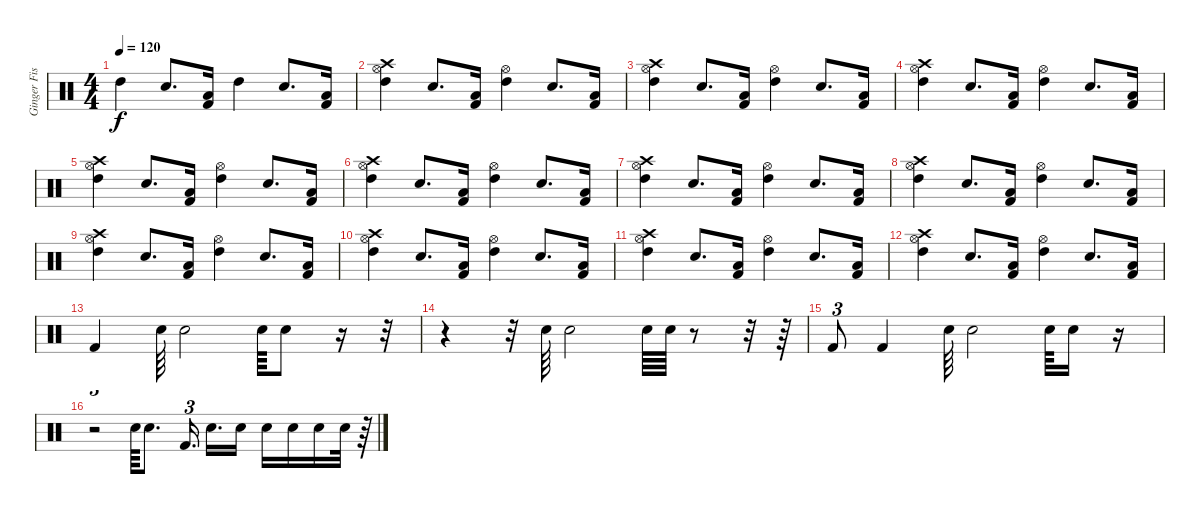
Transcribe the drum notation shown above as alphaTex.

\track ("Ginger Fish" "Ginger Fis") {instrument percussion}
\staff {score}
\articulation defaults
\ts (4 4)
\tempo 120
\clef neutral
\ks c "High Tom (hit)".4{dy f} "Electric Snare (hit)".8{d}
("Low Tom (hit)" "Kick (hit) 2").16 "High Tom (hit)".4 "Electric Snare (hit)".8{d} ("Low Tom (hit)" "Kick (hit) 2").16 |
("Crash high (hit)" "Hi-Hat (open)" "High Tom (hit)").4 "Electric Snare (hit)".8{d} ("Low Tom (hit)" "Kick (hit) 2").16 ("Hi-Hat (open)" "High Tom (hit)").4 "Electric Snare (hit)".8{d} ("Low Tom (hit)" "Kick (hit) 2").16 |
("Crash high (hit)" "Hi-Hat (open)" "High Tom (hit)").4 "Electric Snare (hit)".8{d} ("Low Tom (hit)" "Kick (hit) 2").16 ("Hi-Hat (open)" "High Tom (hit)").4 "Electric Snare (hit)".8{d} ("Low Tom (hit)" "Kick (hit) 2").16 |
("Crash high (hit)" "Hi-Hat (open)" "High Tom (hit)").4 "Electric Snare (hit)".8{d} ("Low Tom (hit)" "Kick (hit) 2").16 ("Hi-Hat (open)" "High Tom (hit)").4 "Electric Snare (hit)".8{d} ("Low Tom (hit)" "Kick (hit) 2").16 |
("Crash high (hit)" "Hi-Hat (open)" "High Tom (hit)").4 "Electric Snare (hit)".8{d} ("Low Tom (hit)" "Kick (hit) 2").16 ("Hi-Hat (open)" "High Tom (hit)").4 "Electric Snare (hit)".8{d} ("Low Tom (hit)" "Kick (hit) 2").16 |
("Crash high (hit)" "Hi-Hat (open)" "High Tom (hit)").4 "Electric Snare (hit)".8{d} ("Low Tom (hit)" "Kick (hit) 2").16 ("Hi-Hat (open)" "High Tom (hit)").4 "Electric Snare (hit)".8{d} ("Low Tom (hit)" "Kick (hit) 2").16 |
("Crash high (hit)" "Hi-Hat (open)" "High Tom (hit)").4 "Electric Snare (hit)".8{d} ("Low Tom (hit)" "Kick (hit) 2").16 ("Hi-Hat (open)" "High Tom (hit)").4 "Electric Snare (hit)".8{d} ("Low Tom (hit)" "Kick (hit) 2").16 |
("Crash high (hit)" "Hi-Hat (open)" "High Tom (hit)").4 "Electric Snare (hit)".8{d} ("Low Tom (hit)" "Kick (hit) 2").16 ("Hi-Hat (open)" "High Tom (hit)").4 "Electric Snare (hit)".8{d} ("Low Tom (hit)" "Kick (hit) 2").16 |
("Crash high (hit)" "Hi-Hat (open)" "High Tom (hit)").4 "Electric Snare (hit)".8{d} ("Low Tom (hit)" "Kick (hit) 2").16 ("Hi-Hat (open)" "High Tom (hit)").4 "Electric Snare (hit)".8{d} ("Low Tom (hit)" "Kick (hit) 2").16 |
("Crash high (hit)" "Hi-Hat (open)" "High Tom (hit)").4 "Electric Snare (hit)".8{d} ("Low Tom (hit)" "Kick (hit) 2").16 ("Hi-Hat (open)" "High Tom (hit)").4 "Electric Snare (hit)".8{d} ("Low Tom (hit)" "Kick (hit) 2").16 |
("Crash high (hit)" "Hi-Hat (open)" "High Tom (hit)").4 "Electric Snare (hit)".8{d} ("Low Tom (hit)" "Kick (hit) 2").16 ("Hi-Hat (open)" "High Tom (hit)").4 "Electric Snare (hit)".8{d} ("Low Tom (hit)" "Kick (hit) 2").16 |
("Crash high (hit)" "Hi-Hat (open)" "High Tom (hit)").4 "Electric Snare (hit)".8{d} ("Low Tom (hit)" "Kick (hit) 2").16 ("Hi-Hat (open)" "High Tom (hit)").4 "Electric Snare (hit)".8{d} ("Low Tom (hit)" "Kick (hit) 2").16 |
"Kick (hit) 2".4 "Electric Snare (hit)".64 "Electric Snare (hit)".2 "Electric Snare (hit)".64 "Electric Snare (hit)".8 r.16 r.32 |
r.4 r.32 "Electric Snare (hit)".64 "Electric Snare (hit)".2 "Electric Snare (hit)".64 "Electric Snare (hit)".64 r.8 r.32 r.64 |
"Kick (hit) 2".8{tu (3 2)} "Kick (hit) 2".4 "Electric Snare (hit)".64 "Electric Snare (hit)".2 "Electric Snare (hit)".64 "Electric Snare (hit)".16 r.16 |
r.2{tu (3 2)} "Electric Snare (hit)".64 "Electric Snare (hit)".8{d} "Kick (hit) 2".16{d tu (3 2) beam splitsecondary} "Electric Snare (hit)".16{d} "Electric Snare (hit)".16 "Electric Snare (hit)".16 "Electric Snare (hit)".16 "Electric Snare (hit)".16 "Electric Snare (hit)".32 r.64
